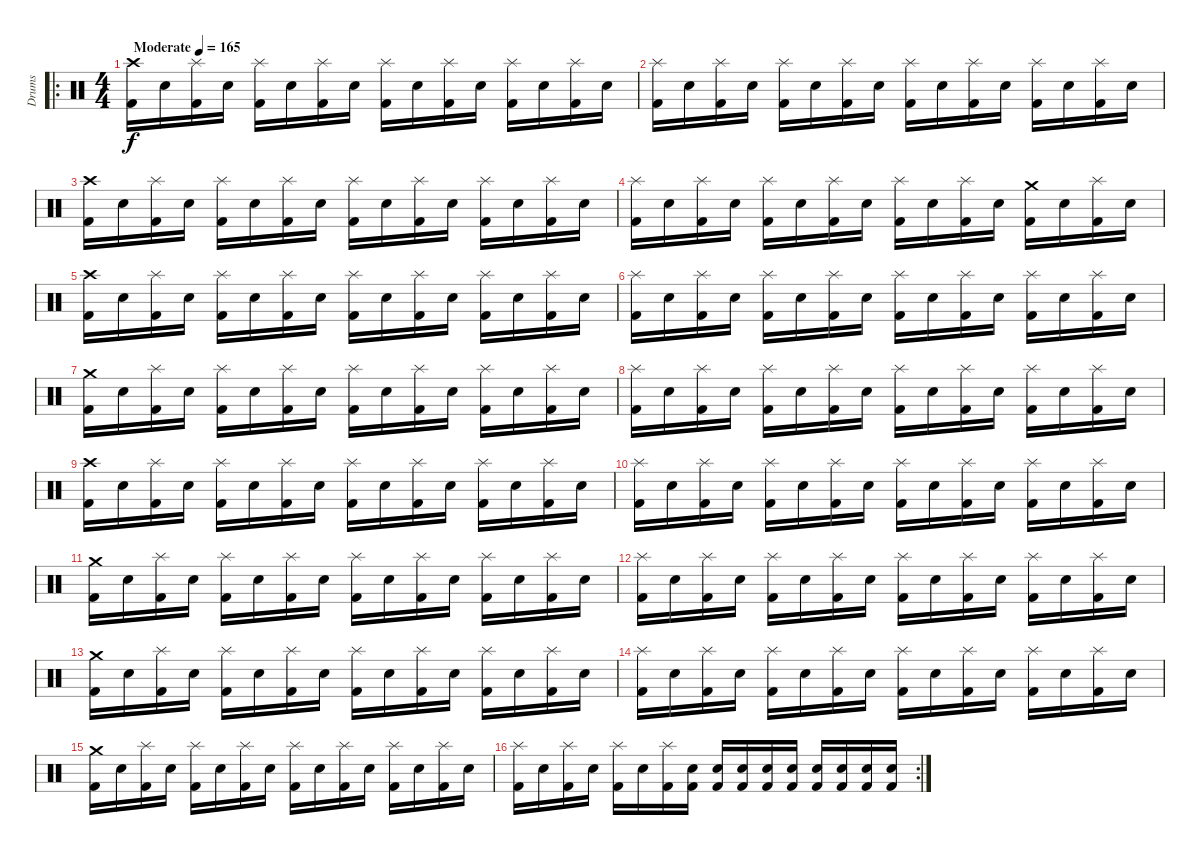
\track ("Drums" "Drums") {instrument percussion}
\staff {score}
\articulation defaults
\ro
\ts (4 4)
\tempo (165 "Moderate")
\clef neutral
\ks c
("Crash high (hit)" "Kick (hit) 2").16{dy f} "Snare (hit) 2".16 ("Splash (hit)" "Kick (hit) 2").16 "Snare (hit) 2".16 ("Splash (hit)" "Kick (hit) 2").16 "Snare (hit) 2".16 ("Splash (hit)" "Kick (hit) 2").16 "Snare (hit) 2".16 ("Splash (hit)" "Kick (hit) 2").16 "Snare (hit) 2".16 ("Splash (hit)" "Kick (hit) 2").16 "Snare (hit) 2".16 ("Splash (hit)" "Kick (hit) 2").16 "Snare (hit) 2".16 ("Splash (hit)" "Kick (hit) 2").16 "Snare (hit) 2".16 |
("Splash (hit)" "Kick (hit) 2").16 "Snare (hit) 2".16 ("Splash (hit)" "Kick (hit) 2").16 "Snare (hit) 2".16 ("Splash (hit)" "Kick (hit) 2").16 "Snare (hit) 2".16 ("Splash (hit)" "Kick (hit) 2").16 "Snare (hit) 2".16 ("Splash (hit)" "Kick (hit) 2").16 "Snare (hit) 2".16 ("Splash (hit)" "Kick (hit) 2").16 "Snare (hit) 2".16 ("Splash (hit)" "Kick (hit) 2").16 "Snare (hit) 2".16 ("Splash (hit)" "Kick (hit) 2").16 "Snare (hit) 2".16 |
("Crash high (hit)" "Kick (hit) 2").16 "Snare (hit) 2".16 ("Splash (hit)" "Kick (hit) 2").16 "Snare (hit) 2".16 ("Splash (hit)" "Kick (hit) 2").16 "Snare (hit) 2".16 ("Splash (hit)" "Kick (hit) 2").16 "Snare (hit) 2".16 ("Splash (hit)" "Kick (hit) 2").16 "Snare (hit) 2".16 ("Splash (hit)" "Kick (hit) 2").16 "Snare (hit) 2".16 ("Splash (hit)" "Kick (hit) 2").16 "Snare (hit) 2".16 ("Splash (hit)" "Kick (hit) 2").16 "Snare (hit) 2".16 |
("Splash (hit)" "Kick (hit) 2").16 "Snare (hit) 2".16 ("Splash (hit)" "Kick (hit) 2").16 "Snare (hit) 2".16 ("Splash (hit)" "Kick (hit) 2").16 "Snare (hit) 2".16 ("Splash (hit)" "Kick (hit) 2").16 "Snare (hit) 2".16 ("Splash (hit)" "Kick (hit) 2").16 "Snare (hit) 2".16 ("Splash (hit)" "Kick (hit) 2").16 "Snare (hit) 2".16 ("Crash medium (hit)" "Kick (hit) 2").16 "Snare (hit) 2".16 ("Splash (hit)" "Kick (hit) 2").16 "Snare (hit) 2".16 |
("Crash high (hit)" "Kick (hit) 2").16 "Snare (hit) 2".16 ("Splash (hit)" "Kick (hit) 2").16 "Snare (hit) 2".16 ("Splash (hit)" "Kick (hit) 2").16 "Snare (hit) 2".16 ("Splash (hit)" "Kick (hit) 2").16 "Snare (hit) 2".16 ("Splash (hit)" "Kick (hit) 2").16 "Snare (hit) 2".16 ("Splash (hit)" "Kick (hit) 2").16 "Snare (hit) 2".16 ("Splash (hit)" "Kick (hit) 2").16 "Snare (hit) 2".16 ("Splash (hit)" "Kick (hit) 2").16 "Snare (hit) 2".16 |
("Splash (hit)" "Kick (hit) 2").16 "Snare (hit) 2".16 ("Splash (hit)" "Kick (hit) 2").16 "Snare (hit) 2".16 ("Splash (hit)" "Kick (hit) 2").16 "Snare (hit) 2".16 ("Splash (hit)" "Kick (hit) 2").16 "Snare (hit) 2".16 ("Splash (hit)" "Kick (hit) 2").16 "Snare (hit) 2".16 ("Splash (hit)" "Kick (hit) 2").16 "Snare (hit) 2".16 ("Splash (hit)" "Kick (hit) 2").16 "Snare (hit) 2".16 ("Splash (hit)" "Kick (hit) 2").16 "Snare (hit) 2".16 |
("Crash medium (hit)" "Kick (hit) 2").16 "Snare (hit) 2".16 ("Splash (hit)" "Kick (hit) 2").16 "Snare (hit) 2".16 ("Splash (hit)" "Kick (hit) 2").16 "Snare (hit) 2".16 ("Splash (hit)" "Kick (hit) 2").16 "Snare (hit) 2".16 ("Splash (hit)" "Kick (hit) 2").16 "Snare (hit) 2".16 ("Splash (hit)" "Kick (hit) 2").16 "Snare (hit) 2".16 ("Splash (hit)" "Kick (hit) 2").16 "Snare (hit) 2".16 ("Splash (hit)" "Kick (hit) 2").16 "Snare (hit) 2".16 |
("Splash (hit)" "Kick (hit) 2").16 "Snare (hit) 2".16 ("Splash (hit)" "Kick (hit) 2").16 "Snare (hit) 2".16 ("Splash (hit)" "Kick (hit) 2").16 "Snare (hit) 2".16 ("Splash (hit)" "Kick (hit) 2").16 "Snare (hit) 2".16 ("Splash (hit)" "Kick (hit) 2").16 "Snare (hit) 2".16 ("Splash (hit)" "Kick (hit) 2").16 "Snare (hit) 2".16 ("Splash (hit)" "Kick (hit) 2").16 "Snare (hit) 2".16 ("Splash (hit)" "Kick (hit) 2").16 "Snare (hit) 2".16 |
("Crash high (hit)" "Kick (hit) 2").16 "Snare (hit) 2".16 ("Splash (hit)" "Kick (hit) 2").16 "Snare (hit) 2".16 ("Splash (hit)" "Kick (hit) 2").16 "Snare (hit) 2".16 ("Splash (hit)" "Kick (hit) 2").16 "Snare (hit) 2".16 ("Splash (hit)" "Kick (hit) 2").16 "Snare (hit) 2".16 ("Splash (hit)" "Kick (hit) 2").16 "Snare (hit) 2".16 ("Splash (hit)" "Kick (hit) 2").16 "Snare (hit) 2".16 ("Splash (hit)" "Kick (hit) 2").16 "Snare (hit) 2".16 |
("Splash (hit)" "Kick (hit) 2").16 "Snare (hit) 2".16 ("Splash (hit)" "Kick (hit) 2").16 "Snare (hit) 2".16 ("Splash (hit)" "Kick (hit) 2").16 "Snare (hit) 2".16 ("Splash (hit)" "Kick (hit) 2").16 "Snare (hit) 2".16 ("Splash (hit)" "Kick (hit) 2").16 "Snare (hit) 2".16 ("Splash (hit)" "Kick (hit) 2").16 "Snare (hit) 2".16 ("Splash (hit)" "Kick (hit) 2").16 "Snare (hit) 2".16 ("Splash (hit)" "Kick (hit) 2").16 "Snare (hit) 2".16 |
("Crash medium (hit)" "Kick (hit) 2").16 "Snare (hit) 2".16 ("Splash (hit)" "Kick (hit) 2").16 "Snare (hit) 2".16 ("Splash (hit)" "Kick (hit) 2").16 "Snare (hit) 2".16 ("Splash (hit)" "Kick (hit) 2").16 "Snare (hit) 2".16 ("Splash (hit)" "Kick (hit) 2").16 "Snare (hit) 2".16 ("Splash (hit)" "Kick (hit) 2").16 "Snare (hit) 2".16 ("Splash (hit)" "Kick (hit) 2").16 "Snare (hit) 2".16 ("Splash (hit)" "Kick (hit) 2").16 "Snare (hit) 2".16 |
("Splash (hit)" "Kick (hit) 2").16 "Snare (hit) 2".16 ("Splash (hit)" "Kick (hit) 2").16 "Snare (hit) 2".16 ("Splash (hit)" "Kick (hit) 2").16 "Snare (hit) 2".16 ("Splash (hit)" "Kick (hit) 2").16 "Snare (hit) 2".16 ("Splash (hit)" "Kick (hit) 2").16 "Snare (hit) 2".16 ("Splash (hit)" "Kick (hit) 2").16 "Snare (hit) 2".16 ("Splash (hit)" "Kick (hit) 2").16 "Snare (hit) 2".16 ("Splash (hit)" "Kick (hit) 2").16 "Snare (hit) 2".16 |
("Crash medium (hit)" "Kick (hit) 2").16 "Snare (hit) 2".16 ("Splash (hit)" "Kick (hit) 2").16 "Snare (hit) 2".16 ("Splash (hit)" "Kick (hit) 2").16 "Snare (hit) 2".16 ("Splash (hit)" "Kick (hit) 2").16 "Snare (hit) 2".16 ("Splash (hit)" "Kick (hit) 2").16 "Snare (hit) 2".16 ("Splash (hit)" "Kick (hit) 2").16 "Snare (hit) 2".16 ("Splash (hit)" "Kick (hit) 2").16 "Snare (hit) 2".16 ("Splash (hit)" "Kick (hit) 2").16 "Snare (hit) 2".16 |
("Splash (hit)" "Kick (hit) 2").16 "Snare (hit) 2".16 ("Splash (hit)" "Kick (hit) 2").16 "Snare (hit) 2".16 ("Splash (hit)" "Kick (hit) 2").16 "Snare (hit) 2".16 ("Splash (hit)" "Kick (hit) 2").16 "Snare (hit) 2".16 ("Splash (hit)" "Kick (hit) 2").16 "Snare (hit) 2".16 ("Splash (hit)" "Kick (hit) 2").16 "Snare (hit) 2".16 ("Splash (hit)" "Kick (hit) 2").16 "Snare (hit) 2".16 ("Splash (hit)" "Kick (hit) 2").16 "Snare (hit) 2".16 |
("Crash medium (hit)" "Kick (hit) 2").16 "Snare (hit) 2".16 ("Splash (hit)" "Kick (hit) 2").16 "Snare (hit) 2".16 ("Splash (hit)" "Kick (hit) 2").16 "Snare (hit) 2".16 ("Splash (hit)" "Kick (hit) 2").16 "Snare (hit) 2".16 ("Splash (hit)" "Kick (hit) 2").16 "Snare (hit) 2".16 ("Splash (hit)" "Kick (hit) 2").16 "Snare (hit) 2".16 ("Splash (hit)" "Kick (hit) 2").16 "Snare (hit) 2".16 ("Splash (hit)" "Kick (hit) 2").16 "Snare (hit) 2".16 |
\rc 2
("Splash (hit)" "Kick (hit) 2").16 "Snare (hit) 2".16 ("Splash (hit)" "Kick (hit) 2").16 "Snare (hit) 2".16 ("Splash (hit)" "Kick (hit) 2").16 "Snare (hit) 2".16 ("Splash (hit)" "Kick (hit) 2").16 ("Snare (hit) 2" "Kick (hit) 2").16 ("Snare (hit) 2" "Kick (hit) 2").16 ("Snare (hit) 2" "Kick (hit) 2").16 ("Snare (hit) 2" "Kick (hit) 2").16 ("Snare (hit) 2" "Kick (hit) 2").16 ("Snare (hit) 2" "Kick (hit) 2").16 ("Snare (hit) 2" "Kick (hit) 2").16 ("Snare (hit) 2" "Kick (hit) 2").16 ("Snare (hit) 2" "Kick (hit) 2").16
